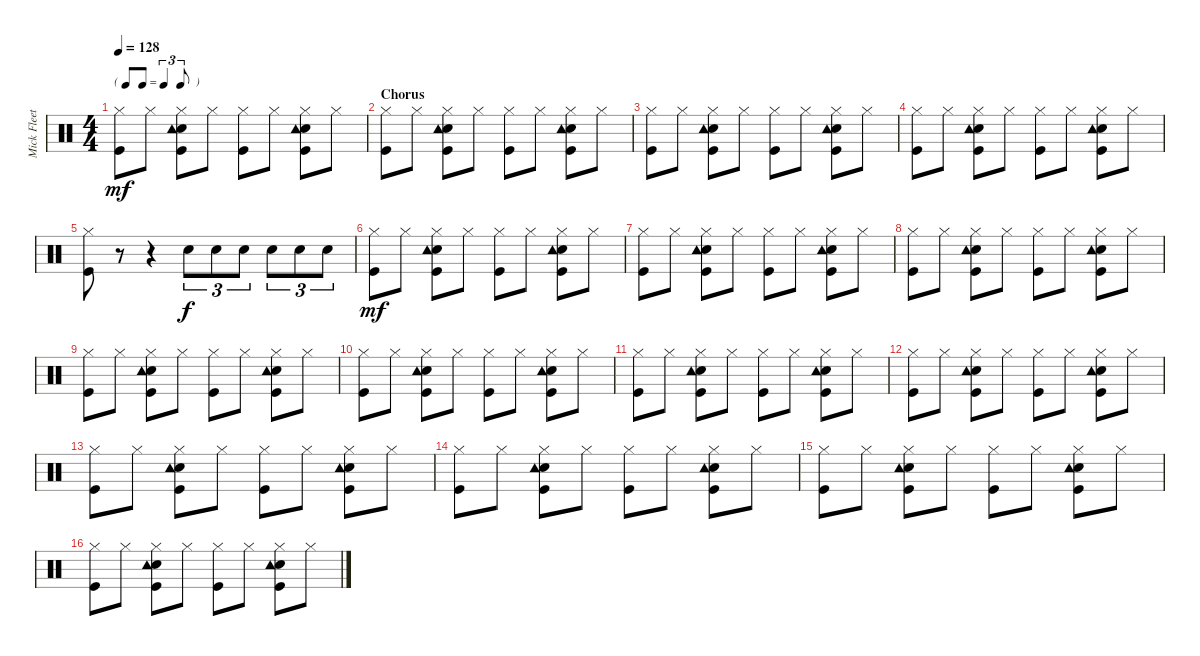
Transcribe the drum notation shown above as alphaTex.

\track ("Mick Fleetwood - Drums" "Mick Fleet") {instrument percussion}
\staff {score}
\articulation defaults
\ts (4 4)
\tf triplet8th
\tempo 128
\clef neutral
\ks c
("Kick (hit)" "Hi-Hat (closed)").8{dy mf} "Hi-Hat (closed)".8 ("Kick (hit)" "Snare (hit) 2" "Hi-Hat (closed)" "Tambourine (hit)").8 "Hi-Hat (closed)".8 ("Kick (hit)" "Hi-Hat (closed)").8 "Hi-Hat (closed)".8 ("Kick (hit)" "Snare (hit) 2" "Hi-Hat (closed)" "Tambourine (hit)").8 "Hi-Hat (closed)".8 |
\section ("" "Chorus")
("Kick (hit)" "Hi-Hat (closed)").8 "Hi-Hat (closed)".8 ("Kick (hit)" "Snare (hit) 2" "Hi-Hat (closed)" "Tambourine (hit)").8 "Hi-Hat (closed)".8 ("Kick (hit)" "Hi-Hat (closed)").8 "Hi-Hat (closed)".8 ("Kick (hit)" "Snare (hit) 2" "Hi-Hat (closed)" "Tambourine (hit)").8 "Hi-Hat (closed)".8 |
("Kick (hit)" "Hi-Hat (closed)").8 "Hi-Hat (closed)".8 ("Kick (hit)" "Snare (hit) 2" "Hi-Hat (closed)" "Tambourine (hit)").8 "Hi-Hat (closed)".8 ("Kick (hit)" "Hi-Hat (closed)").8 "Hi-Hat (closed)".8 ("Kick (hit)" "Snare (hit) 2" "Hi-Hat (closed)" "Tambourine (hit)").8 "Hi-Hat (closed)".8 |
("Kick (hit)" "Hi-Hat (closed)").8 "Hi-Hat (closed)".8 ("Kick (hit)" "Snare (hit) 2" "Hi-Hat (closed)" "Tambourine (hit)").8 "Hi-Hat (closed)".8 ("Kick (hit)" "Hi-Hat (closed)").8 "Hi-Hat (closed)".8 ("Kick (hit)" "Snare (hit) 2" "Hi-Hat (closed)" "Tambourine (hit)").8 "Hi-Hat (closed)".8 |
("Kick (hit)" "Hi-Hat (closed)").8 r.8 r.4 "Snare (hit) 2".8{tu (3 2) dy f} "Snare (hit) 2".8{tu (3 2)} "Snare (hit) 2".8{tu (3 2)} "Snare (hit) 2".8{tu (3 2)} "Snare (hit) 2".8{tu (3 2)} "Snare (hit) 2".8{tu (3 2)} |
("Kick (hit)" "Hi-Hat (closed)").8{dy mf} "Hi-Hat (closed)".8 ("Kick (hit)" "Snare (hit) 2" "Hi-Hat (closed)" "Tambourine (hit)").8 "Hi-Hat (closed)".8 ("Kick (hit)" "Hi-Hat (closed)").8 "Hi-Hat (closed)".8 ("Kick (hit)" "Snare (hit) 2" "Hi-Hat (closed)" "Tambourine (hit)").8 "Hi-Hat (closed)".8 |
("Kick (hit)" "Hi-Hat (closed)").8 "Hi-Hat (closed)".8 ("Kick (hit)" "Snare (hit) 2" "Hi-Hat (closed)" "Tambourine (hit)").8 "Hi-Hat (closed)".8 ("Kick (hit)" "Hi-Hat (closed)").8 "Hi-Hat (closed)".8 ("Kick (hit)" "Snare (hit) 2" "Hi-Hat (closed)" "Tambourine (hit)").8 "Hi-Hat (closed)".8 |
("Kick (hit)" "Hi-Hat (closed)").8 "Hi-Hat (closed)".8 ("Kick (hit)" "Snare (hit) 2" "Hi-Hat (closed)" "Tambourine (hit)").8 "Hi-Hat (closed)".8 ("Kick (hit)" "Hi-Hat (closed)").8 "Hi-Hat (closed)".8 ("Kick (hit)" "Snare (hit) 2" "Hi-Hat (closed)" "Tambourine (hit)").8 "Hi-Hat (closed)".8 |
("Kick (hit)" "Hi-Hat (closed)").8 "Hi-Hat (closed)".8 ("Kick (hit)" "Snare (hit) 2" "Hi-Hat (closed)" "Tambourine (hit)").8 "Hi-Hat (closed)".8 ("Kick (hit)" "Hi-Hat (closed)").8 "Hi-Hat (closed)".8 ("Kick (hit)" "Snare (hit) 2" "Hi-Hat (closed)" "Tambourine (hit)").8 "Hi-Hat (closed)".8 |
("Kick (hit)" "Hi-Hat (closed)").8 "Hi-Hat (closed)".8 ("Kick (hit)" "Snare (hit) 2" "Hi-Hat (closed)" "Tambourine (hit)").8 "Hi-Hat (closed)".8 ("Kick (hit)" "Hi-Hat (closed)").8 "Hi-Hat (closed)".8 ("Kick (hit)" "Snare (hit) 2" "Hi-Hat (closed)" "Tambourine (hit)").8 "Hi-Hat (closed)".8 |
("Kick (hit)" "Hi-Hat (closed)").8 "Hi-Hat (closed)".8 ("Kick (hit)" "Snare (hit) 2" "Hi-Hat (closed)" "Tambourine (hit)").8 "Hi-Hat (closed)".8 ("Kick (hit)" "Hi-Hat (closed)").8 "Hi-Hat (closed)".8 ("Kick (hit)" "Snare (hit) 2" "Hi-Hat (closed)" "Tambourine (hit)").8 "Hi-Hat (closed)".8 |
("Kick (hit)" "Hi-Hat (closed)").8 "Hi-Hat (closed)".8 ("Kick (hit)" "Snare (hit) 2" "Hi-Hat (closed)" "Tambourine (hit)").8 "Hi-Hat (closed)".8 ("Kick (hit)" "Hi-Hat (closed)").8 "Hi-Hat (closed)".8 ("Kick (hit)" "Snare (hit) 2" "Hi-Hat (closed)" "Tambourine (hit)").8 "Hi-Hat (closed)".8 |
("Kick (hit)" "Hi-Hat (closed)").8 "Hi-Hat (closed)".8 ("Kick (hit)" "Snare (hit) 2" "Hi-Hat (closed)" "Tambourine (hit)").8 "Hi-Hat (closed)".8 ("Kick (hit)" "Hi-Hat (closed)").8 "Hi-Hat (closed)".8 ("Kick (hit)" "Snare (hit) 2" "Hi-Hat (closed)" "Tambourine (hit)").8 "Hi-Hat (closed)".8 |
("Kick (hit)" "Hi-Hat (closed)").8 "Hi-Hat (closed)".8 ("Kick (hit)" "Snare (hit) 2" "Hi-Hat (closed)" "Tambourine (hit)").8 "Hi-Hat (closed)".8 ("Kick (hit)" "Hi-Hat (closed)").8 "Hi-Hat (closed)".8 ("Kick (hit)" "Snare (hit) 2" "Hi-Hat (closed)" "Tambourine (hit)").8 "Hi-Hat (closed)".8 |
("Kick (hit)" "Hi-Hat (closed)").8 "Hi-Hat (closed)".8 ("Kick (hit)" "Snare (hit) 2" "Hi-Hat (closed)" "Tambourine (hit)").8 "Hi-Hat (closed)".8 ("Kick (hit)" "Hi-Hat (closed)").8 "Hi-Hat (closed)".8 ("Kick (hit)" "Snare (hit) 2" "Hi-Hat (closed)" "Tambourine (hit)").8 "Hi-Hat (closed)".8 |
("Kick (hit)" "Hi-Hat (closed)").8 "Hi-Hat (closed)".8 ("Kick (hit)" "Snare (hit) 2" "Hi-Hat (closed)" "Tambourine (hit)").8 "Hi-Hat (closed)".8 ("Kick (hit)" "Hi-Hat (closed)").8 "Hi-Hat (closed)".8 ("Kick (hit)" "Snare (hit) 2" "Hi-Hat (closed)" "Tambourine (hit)").8 "Hi-Hat (closed)".8
